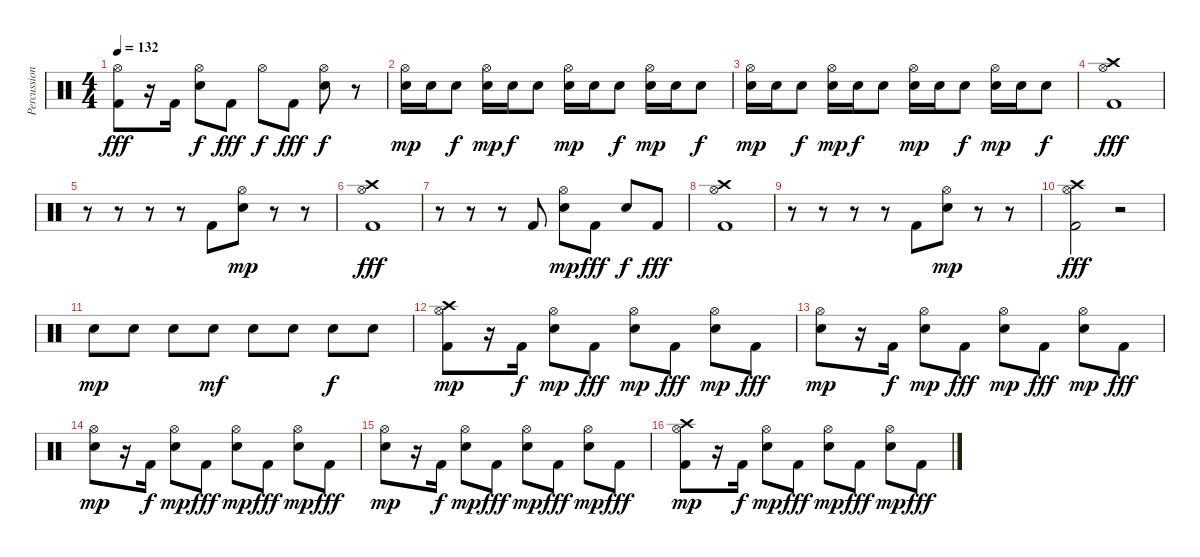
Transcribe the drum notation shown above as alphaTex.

\track ("Percussion" "Percussion") {instrument percussion}
\staff {score}
\articulation defaults
\ts (4 4)
\tempo 132
\clef neutral
\ks c
("Kick (hit) 2" "Hi-Hat (open)").8{dy fff} r.16 "Kick (hit) 2".16 ("Electric Snare (hit)" "Hi-Hat (open)").8{dy f} "Kick (hit) 2".8{dy fff} "Hi-Hat (open)".8{dy f} "Kick (hit) 2".8{dy fff} ("Electric Snare (hit)" "Hi-Hat (open)").8{dy f} r.8 |
("Electric Snare (hit)" "Hi-Hat (open)").16{dy mp} "Electric Snare (hit)".16 "Electric Snare (hit)".8{dy f} ("Electric Snare (hit)" "Hi-Hat (open)").16{dy mp} "Electric Snare (hit)".16{dy f} "Electric Snare (hit)".8 ("Electric Snare (hit)" "Hi-Hat (open)").16{dy mp} "Electric Snare (hit)".16 "Electric Snare (hit)".8{dy f} ("Electric Snare (hit)" "Hi-Hat (open)").16{dy mp} "Electric Snare (hit)".16 "Electric Snare (hit)".8{dy f} |
("Electric Snare (hit)" "Hi-Hat (open)").16{dy mp} "Electric Snare (hit)".16 "Electric Snare (hit)".8{dy f} ("Electric Snare (hit)" "Hi-Hat (open)").16{dy mp} "Electric Snare (hit)".16{dy f} "Electric Snare (hit)".8 ("Electric Snare (hit)" "Hi-Hat (open)").16{dy mp} "Electric Snare (hit)".16 "Electric Snare (hit)".8{dy f} ("Electric Snare (hit)" "Hi-Hat (open)").16{dy mp} "Electric Snare (hit)".16 "Electric Snare (hit)".8{dy f} |
("Kick (hit) 2" "Hi-Hat (open)" "Crash high (hit)").1{dy fff} |
r.8 r.8 r.8 r.8 "Kick (hit) 2".8 ("Electric Snare (hit)" "Hi-Hat (open)").8{dy mp} r.8 r.8 |
("Kick (hit) 2" "Hi-Hat (open)" "Crash high (hit)").1{dy fff} |
r.8 r.8 r.8 "Kick (hit) 2".8 ("Electric Snare (hit)" "Hi-Hat (open)").8{dy mp} "Kick (hit) 2".8{dy fff} "Electric Snare (hit)".8{dy f} "Kick (hit) 2".8{dy fff} |
("Kick (hit) 2" "Hi-Hat (open)" "Crash high (hit)").1 |
r.8 r.8 r.8 r.8 "Kick (hit) 2".8 ("Electric Snare (hit)" "Hi-Hat (open)").8{dy mp} r.8 r.8 |
("Kick (hit) 2" "Hi-Hat (open)" "Crash high (hit)").2{dy fff} r.2 |
"Electric Snare (hit)".8{dy mp} "Electric Snare (hit)".8 "Electric Snare (hit)".8 "Electric Snare (hit)".8{dy mf} "Electric Snare (hit)".8 "Electric Snare (hit)".8 "Electric Snare (hit)".8{dy f} "Electric Snare (hit)".8 |
("Kick (hit) 2" "Hi-Hat (open)" "Crash high (hit)").8{dy mp} r.16 "Kick (hit) 2".16{dy f} ("Electric Snare (hit)" "Hi-Hat (open)").8{dy mp} "Kick (hit) 2".8{dy fff} ("Electric Snare (hit)" "Hi-Hat (open)").8{dy mp} "Kick (hit) 2".8{dy fff} ("Electric Snare (hit)" "Hi-Hat (open)").8{dy mp} "Kick (hit) 2".8{dy fff} |
("Electric Snare (hit)" "Hi-Hat (open)").8{dy mp} r.16 "Kick (hit) 2".16{dy f} ("Electric Snare (hit)" "Hi-Hat (open)").8{dy mp} "Kick (hit) 2".8{dy fff} ("Electric Snare (hit)" "Hi-Hat (open)").8{dy mp} "Kick (hit) 2".8{dy fff} ("Electric Snare (hit)" "Hi-Hat (open)").8{dy mp} "Kick (hit) 2".8{dy fff} |
("Electric Snare (hit)" "Hi-Hat (open)").8{dy mp} r.16 "Kick (hit) 2".16{dy f} ("Electric Snare (hit)" "Hi-Hat (open)").8{dy mp} "Kick (hit) 2".8{dy fff} ("Electric Snare (hit)" "Hi-Hat (open)").8{dy mp} "Kick (hit) 2".8{dy fff} ("Electric Snare (hit)" "Hi-Hat (open)").8{dy mp} "Kick (hit) 2".8{dy fff} |
("Electric Snare (hit)" "Hi-Hat (open)").8{dy mp} r.16 "Kick (hit) 2".16{dy f} ("Electric Snare (hit)" "Hi-Hat (open)").8{dy mp} "Kick (hit) 2".8{dy fff} ("Electric Snare (hit)" "Hi-Hat (open)").8{dy mp} "Kick (hit) 2".8{dy fff} ("Electric Snare (hit)" "Hi-Hat (open)").8{dy mp} "Kick (hit) 2".8{dy fff} |
("Kick (hit) 2" "Hi-Hat (open)" "Crash high (hit)").8{dy mp} r.16 "Kick (hit) 2".16{dy f} ("Electric Snare (hit)" "Hi-Hat (open)").8{dy mp} "Kick (hit) 2".8{dy fff} ("Electric Snare (hit)" "Hi-Hat (open)").8{dy mp} "Kick (hit) 2".8{dy fff} ("Electric Snare (hit)" "Hi-Hat (open)").8{dy mp} "Kick (hit) 2".8{dy fff}
